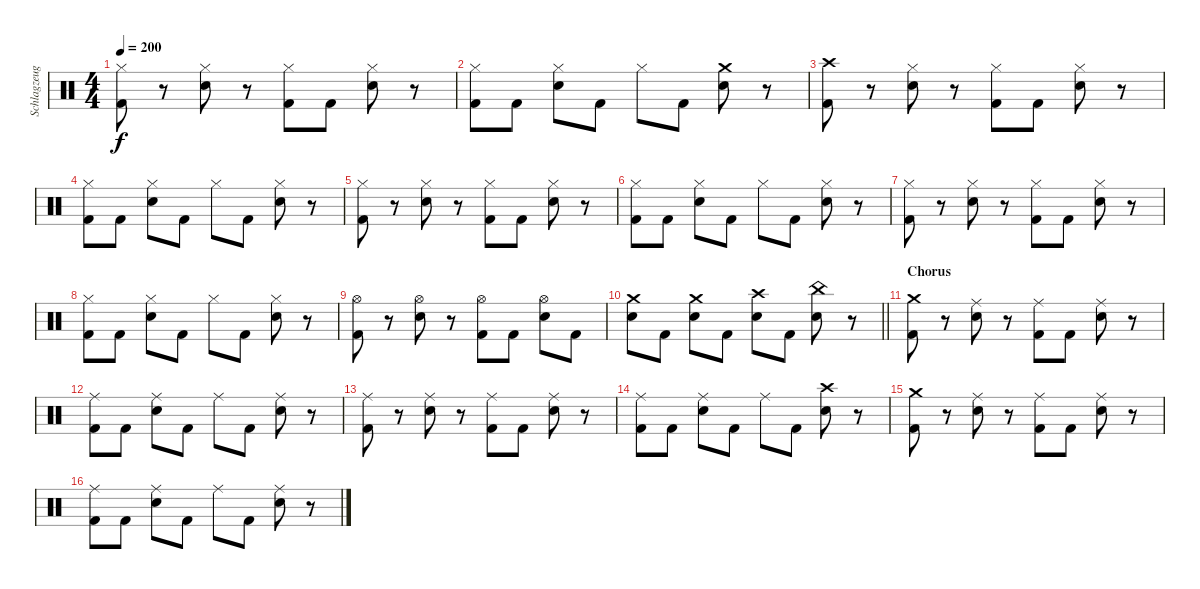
\track ("Schlagzeug" "Schlagzeug") {instrument percussion}
\staff {score}
\articulation defaults
\ts (4 4)
\tempo 200
\clef neutral
\ks c
("Hi-Hat (closed)" "Kick (hit) 2").8{dy f} r.8 ("Hi-Hat (closed)" "Electric Snare (hit)").8 r.8 ("Hi-Hat (closed)" "Kick (hit) 2").8 "Kick (hit) 2".8 ("Hi-Hat (closed)" "Electric Snare (hit)").8 r.8 |
("Hi-Hat (closed)" "Kick (hit) 2").8 "Kick (hit) 2".8 ("Hi-Hat (closed)" "Electric Snare (hit)").8 "Kick (hit) 2".8 "Hi-Hat (closed)".8 "Kick (hit) 2".8 ("Crash medium (hit)" "Electric Snare (hit)").8 r.8 |
("Crash high (hit)" "Kick (hit) 2").8 r.8 ("Hi-Hat (closed)" "Electric Snare (hit)").8 r.8 ("Hi-Hat (closed)" "Kick (hit) 2").8 "Kick (hit) 2".8 ("Hi-Hat (closed)" "Electric Snare (hit)").8 r.8 |
("Hi-Hat (closed)" "Kick (hit) 2").8 "Kick (hit) 2".8 ("Hi-Hat (closed)" "Electric Snare (hit)").8 "Kick (hit) 2".8 "Hi-Hat (closed)".8 "Kick (hit) 2".8 ("Hi-Hat (closed)" "Electric Snare (hit)").8 r.8 |
("Hi-Hat (closed)" "Kick (hit) 2").8 r.8 ("Hi-Hat (closed)" "Electric Snare (hit)").8 r.8 ("Hi-Hat (closed)" "Kick (hit) 2").8 "Kick (hit) 2".8 ("Hi-Hat (closed)" "Electric Snare (hit)").8 r.8 |
("Hi-Hat (closed)" "Kick (hit) 2").8 "Kick (hit) 2".8 ("Hi-Hat (closed)" "Electric Snare (hit)").8 "Kick (hit) 2".8 "Hi-Hat (closed)".8 "Kick (hit) 2".8 ("Hi-Hat (closed)" "Electric Snare (hit)").8 r.8 |
("Hi-Hat (closed)" "Kick (hit) 2").8 r.8 ("Hi-Hat (closed)" "Electric Snare (hit)").8 r.8 ("Hi-Hat (closed)" "Kick (hit) 2").8 "Kick (hit) 2".8 ("Hi-Hat (closed)" "Electric Snare (hit)").8 r.8 |
("Hi-Hat (closed)" "Kick (hit) 2").8 "Kick (hit) 2".8 ("Hi-Hat (closed)" "Electric Snare (hit)").8 "Kick (hit) 2".8 "Hi-Hat (closed)".8 "Kick (hit) 2".8 ("Hi-Hat (closed)" "Electric Snare (hit)").8 r.8 |
("Hi-Hat (open)" "Kick (hit) 2").8 r.8 ("Hi-Hat (open)" "Electric Snare (hit)").8 r.8 ("Hi-Hat (open)" "Kick (hit) 2").8 "Kick (hit) 2".8 ("Hi-Hat (open)" "Electric Snare (hit)").8 "Kick (hit) 2".8 |
\barLineRight lightlight
("Crash medium (hit)" "Electric Snare (hit)").8 "Kick (hit) 2".8 ("Crash medium (hit)" "Electric Snare (hit)").8 "Kick (hit) 2".8 ("Crash high (hit)" "Electric Snare (hit)").8 "Kick (hit) 2".8 ("China (hit)" "Electric Snare (hit)").8 r.8 |
\section ("" "Chorus")
("Crash medium (hit)" "Kick (hit) 2").8 r.8 ("Ride (middle)" "Electric Snare (hit)").8 r.8 ("Ride (middle)" "Kick (hit) 2").8 "Kick (hit) 2".8 ("Ride (middle)" "Electric Snare (hit)").8 r.8 |
("Ride (middle)" "Kick (hit) 2").8 "Kick (hit) 2".8 ("Ride (middle)" "Electric Snare (hit)").8 "Kick (hit) 2".8 "Ride (middle)".8 "Kick (hit) 2".8 ("Ride (middle)" "Electric Snare (hit)").8 r.8 |
("Ride (middle)" "Kick (hit) 2").8 r.8 ("Ride (middle)" "Electric Snare (hit)").8 r.8 ("Ride (middle)" "Kick (hit) 2").8 "Kick (hit) 2".8 ("Ride (middle)" "Electric Snare (hit)").8 r.8 |
("Ride (middle)" "Kick (hit) 2").8 "Kick (hit) 2".8 ("Ride (middle)" "Electric Snare (hit)").8 "Kick (hit) 2".8 "Ride (middle)".8 "Kick (hit) 2".8 ("Crash high (hit)" "Electric Snare (hit)").8 r.8 |
("Crash medium (hit)" "Kick (hit) 2").8 r.8 ("Ride (middle)" "Electric Snare (hit)").8 r.8 ("Ride (middle)" "Kick (hit) 2").8 "Kick (hit) 2".8 ("Ride (middle)" "Electric Snare (hit)").8 r.8 |
("Ride (middle)" "Kick (hit) 2").8 "Kick (hit) 2".8 ("Ride (middle)" "Electric Snare (hit)").8 "Kick (hit) 2".8 "Ride (middle)".8 "Kick (hit) 2".8 ("Ride (middle)" "Electric Snare (hit)").8 r.8
